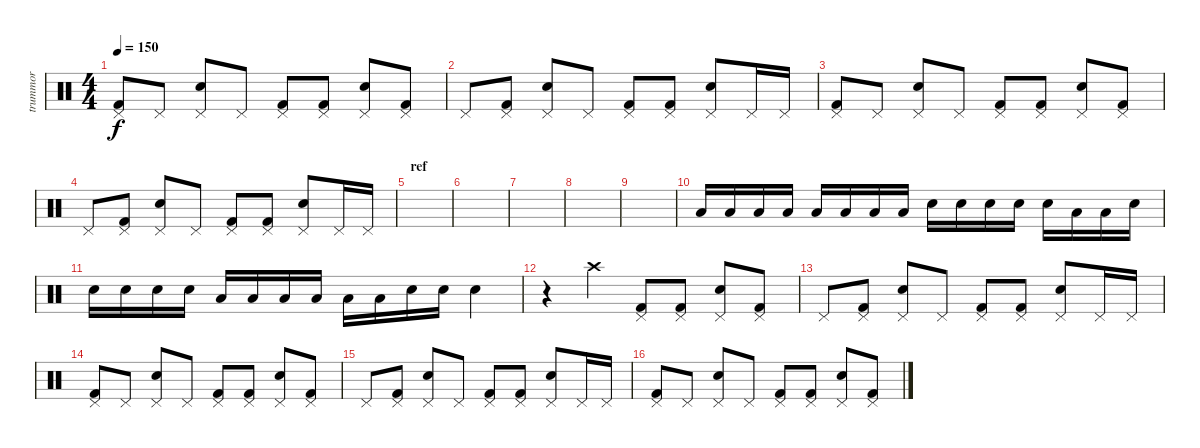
\track ("trummor" "trummor") {instrument percussion}
\staff {score}
\articulation defaults
\ts (4 4)
\tempo 150
\clef neutral
\ks c
("Pedal Hi-Hat (hit)" "Kick (hit) 2").8{dy f} "Pedal Hi-Hat (hit)".8 ("Pedal Hi-Hat (hit)" "Snare (hit) 2").8 "Pedal Hi-Hat (hit)".8 ("Pedal Hi-Hat (hit)" "Kick (hit) 2").8 ("Pedal Hi-Hat (hit)" "Kick (hit) 2").8 ("Pedal Hi-Hat (hit)" "Snare (hit) 2").8 ("Pedal Hi-Hat (hit)" "Kick (hit) 2").8 |
"Pedal Hi-Hat (hit)".8 ("Pedal Hi-Hat (hit)" "Kick (hit) 2").8 ("Pedal Hi-Hat (hit)" "Snare (hit) 2").8 "Pedal Hi-Hat (hit)".8 ("Pedal Hi-Hat (hit)" "Kick (hit) 2").8 ("Pedal Hi-Hat (hit)" "Kick (hit) 2").8 ("Pedal Hi-Hat (hit)" "Snare (hit) 2").8 "Pedal Hi-Hat (hit)".16 "Pedal Hi-Hat (hit)".16 |
("Pedal Hi-Hat (hit)" "Kick (hit) 2").8 "Pedal Hi-Hat (hit)".8 ("Pedal Hi-Hat (hit)" "Snare (hit) 2").8 "Pedal Hi-Hat (hit)".8 ("Pedal Hi-Hat (hit)" "Kick (hit) 2").8 ("Pedal Hi-Hat (hit)" "Kick (hit) 2").8 ("Pedal Hi-Hat (hit)" "Snare (hit) 2").8 ("Pedal Hi-Hat (hit)" "Kick (hit) 2").8 |
"Pedal Hi-Hat (hit)".8 ("Pedal Hi-Hat (hit)" "Kick (hit) 2").8 ("Pedal Hi-Hat (hit)" "Snare (hit) 2").8 "Pedal Hi-Hat (hit)".8 ("Pedal Hi-Hat (hit)" "Kick (hit) 2").8 ("Pedal Hi-Hat (hit)" "Kick (hit) 2").8 ("Pedal Hi-Hat (hit)" "Snare (hit) 2").8 "Pedal Hi-Hat (hit)".16 "Pedal Hi-Hat (hit)".16 |
\section ("" "ref")
|
|
|
|
|
"Low Floor Tom (hit)".16 "Low Floor Tom (hit)".16 "Low Floor Tom (hit)".16 "Low Floor Tom (hit)".16 "Low Floor Tom (hit)".16 "Low Floor Tom (hit)".16 "Low Floor Tom (hit)".16 "Low Floor Tom (hit)".16 "Snare (hit) 2".16 "Snare (hit) 2".16 "Snare (hit) 2".16 "Snare (hit) 2".16 "Snare (hit) 2".16 "Low Floor Tom (hit)".16 "Low Floor Tom (hit)".16 "Snare (hit) 2".16 |
"Snare (hit) 2".16 "Snare (hit) 2".16 "Snare (hit) 2".16 "Snare (hit) 2".16 "Low Floor Tom (hit)".16 "Low Floor Tom (hit)".16 "Low Floor Tom (hit)".16 "Low Floor Tom (hit)".16 "Low Tom (hit)".16 "Low Tom (hit)".16 "Snare (hit) 2".16 "Snare (hit) 2".16 "Snare (hit) 2".4 |
r.4 "Crash high (hit)".4 ("Pedal Hi-Hat (hit)" "Kick (hit) 2").8 ("Pedal Hi-Hat (hit)" "Kick (hit) 2").8 ("Pedal Hi-Hat (hit)" "Snare (hit) 2").8 ("Pedal Hi-Hat (hit)" "Kick (hit) 2").8 |
"Pedal Hi-Hat (hit)".8 ("Pedal Hi-Hat (hit)" "Kick (hit) 2").8 ("Pedal Hi-Hat (hit)" "Snare (hit) 2").8 "Pedal Hi-Hat (hit)".8 ("Pedal Hi-Hat (hit)" "Kick (hit) 2").8 ("Pedal Hi-Hat (hit)" "Kick (hit) 2").8 ("Pedal Hi-Hat (hit)" "Snare (hit) 2").8 "Pedal Hi-Hat (hit)".16 "Pedal Hi-Hat (hit)".16 |
("Pedal Hi-Hat (hit)" "Kick (hit) 2").8 "Pedal Hi-Hat (hit)".8 ("Pedal Hi-Hat (hit)" "Snare (hit) 2").8 "Pedal Hi-Hat (hit)".8 ("Pedal Hi-Hat (hit)" "Kick (hit) 2").8 ("Pedal Hi-Hat (hit)" "Kick (hit) 2").8 ("Pedal Hi-Hat (hit)" "Snare (hit) 2").8 ("Pedal Hi-Hat (hit)" "Kick (hit) 2").8 |
"Pedal Hi-Hat (hit)".8 ("Pedal Hi-Hat (hit)" "Kick (hit) 2").8 ("Pedal Hi-Hat (hit)" "Snare (hit) 2").8 "Pedal Hi-Hat (hit)".8 ("Pedal Hi-Hat (hit)" "Kick (hit) 2").8 ("Pedal Hi-Hat (hit)" "Kick (hit) 2").8 ("Pedal Hi-Hat (hit)" "Snare (hit) 2").8 "Pedal Hi-Hat (hit)".16 "Pedal Hi-Hat (hit)".16 |
("Pedal Hi-Hat (hit)" "Kick (hit) 2").8 "Pedal Hi-Hat (hit)".8 ("Pedal Hi-Hat (hit)" "Snare (hit) 2").8 "Pedal Hi-Hat (hit)".8 ("Pedal Hi-Hat (hit)" "Kick (hit) 2").8 ("Pedal Hi-Hat (hit)" "Kick (hit) 2").8 ("Pedal Hi-Hat (hit)" "Snare (hit) 2").8 ("Pedal Hi-Hat (hit)" "Kick (hit) 2").8
